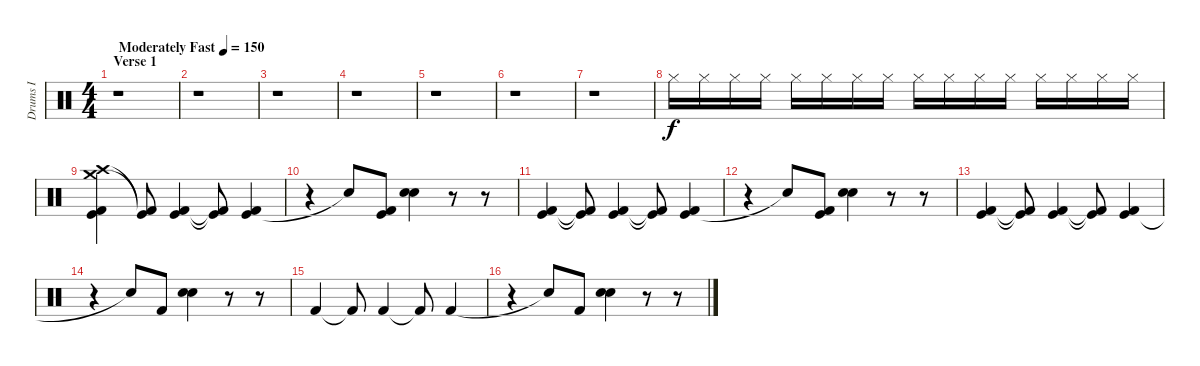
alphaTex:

\track ("Drums I" "Drums I") {instrument percussion}
\staff {score}
\articulation defaults
\ts (4 4)
\section ("" "Verse 1")
\tempo (150 "Moderately Fast")
\clef neutral
\ks c
r.1{dy f} |
r.1 |
r.1 |
r.1 |
r.1 |
r.1 |
r.1 |
"Hi-Hat (closed)".16 "Hi-Hat (closed)".16 "Hi-Hat (closed)".16 "Hi-Hat (closed)".16 "Hi-Hat (closed)".16 "Hi-Hat (closed)".16 "Hi-Hat (closed)".16 "Hi-Hat (closed)".16 "Hi-Hat (closed)".16 "Hi-Hat (closed)".16 "Hi-Hat (closed)".16 "Hi-Hat (closed)".16 "Hi-Hat (closed)".16 "Hi-Hat (closed)".16 "Hi-Hat (closed)".16 "Hi-Hat (closed)".16 |
("Crash high (hit)" "Crash medium (hit)" "Kick (hit)" "Kick (hit) 2").4 ("Kick (hit)"{t} "Kick (hit) 2"{t}).8 ("Kick (hit)" "Kick (hit) 2").4 ("Kick (hit)"{t} "Kick (hit) 2"{t}).8 ("Kick (hit)" "Kick (hit) 2").4 |
r.4 "Snare (hit)"{t}.8 ("Kick (hit)" "Kick (hit) 2").8 ("Snare (hit) 2" "Electric Snare (hit)").4 r.8 r.8 |
("Kick (hit)" "Kick (hit) 2").4 ("Kick (hit)"{t} "Kick (hit) 2"{t}).8 ("Kick (hit)" "Kick (hit) 2").4 ("Kick (hit)"{t} "Kick (hit) 2"{t}).8 ("Kick (hit)" "Kick (hit) 2").4 |
r.4 "Snare (hit)"{t}.8 ("Kick (hit)" "Kick (hit) 2").8 ("Snare (hit) 2" "Electric Snare (hit)").4 r.8 r.8 |
("Kick (hit)" "Kick (hit) 2").4 ("Kick (hit)"{t} "Kick (hit) 2"{t}).8 ("Kick (hit)" "Kick (hit) 2").4 ("Kick (hit)"{t} "Kick (hit) 2"{t}).8 ("Kick (hit)" "Kick (hit) 2").4 |
r.4 "Snare (hit)"{t}.8 "Kick (hit) 2".8 ("Snare (hit) 2" "Electric Snare (hit)").4 r.8 r.8 |
"Kick (hit) 2".4 "Kick (hit) 2"{t}.8 "Kick (hit) 2".4 "Kick (hit) 2"{t}.8 "Kick (hit) 2".4 |
r.4 "Snare (hit)"{t}.8 "Kick (hit) 2".8 ("Snare (hit) 2" "Electric Snare (hit)").4 r.8 r.8
